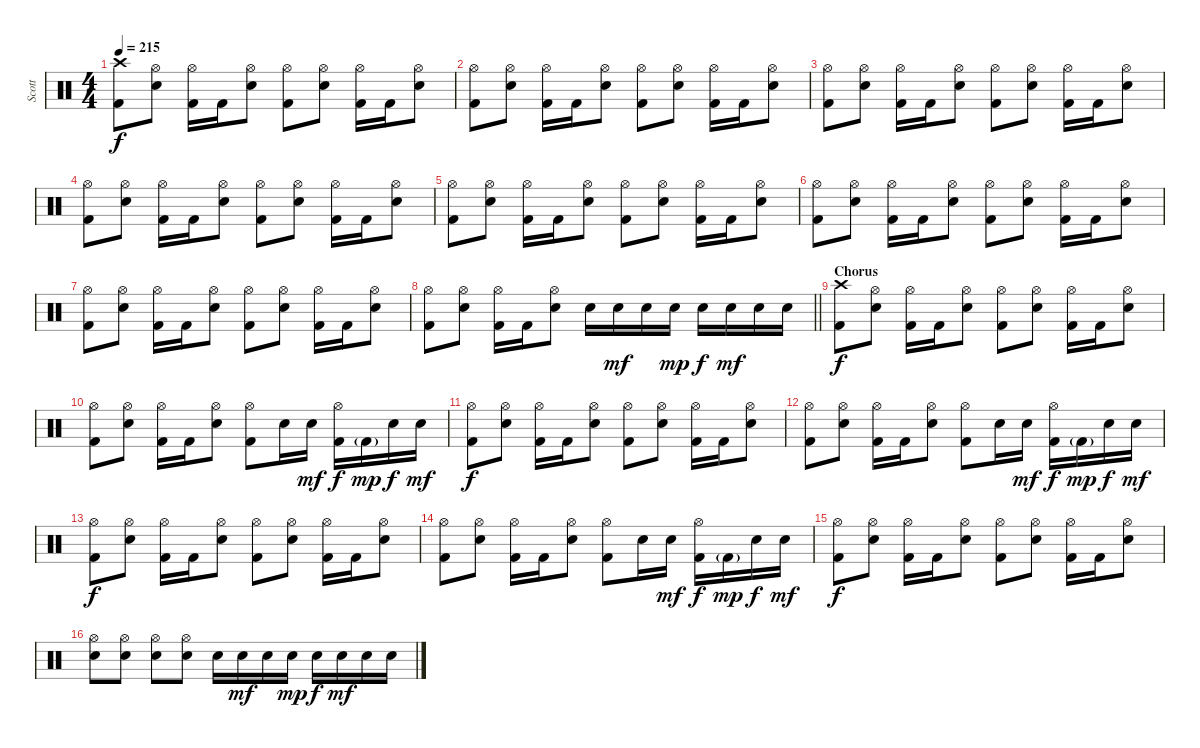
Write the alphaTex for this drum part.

\track ("Scott" "Scott") {instrument percussion}
\staff {score}
\articulation defaults
\ts (4 4)
\tempo 215
\clef neutral
\ks c
("Crash high (hit)" "Kick (hit) 2").8{dy f} ("Hi-Hat (open)" "Electric Snare (hit)").8 ("Hi-Hat (open)" "Kick (hit) 2").16 "Kick (hit) 2".16 ("Hi-Hat (open)" "Electric Snare (hit)").8 ("Hi-Hat (open)" "Kick (hit) 2").8 ("Hi-Hat (open)" "Electric Snare (hit)").8 ("Hi-Hat (open)" "Kick (hit) 2").16 "Kick (hit) 2".16 ("Hi-Hat (open)" "Electric Snare (hit)").8 |
("Hi-Hat (open)" "Kick (hit) 2").8 ("Hi-Hat (open)" "Electric Snare (hit)").8 ("Hi-Hat (open)" "Kick (hit) 2").16 "Kick (hit) 2".16 ("Hi-Hat (open)" "Electric Snare (hit)").8 ("Hi-Hat (open)" "Kick (hit) 2").8 ("Hi-Hat (open)" "Electric Snare (hit)").8 ("Hi-Hat (open)" "Kick (hit) 2").16 "Kick (hit) 2".16 ("Hi-Hat (open)" "Electric Snare (hit)").8 |
("Hi-Hat (open)" "Kick (hit) 2").8 ("Hi-Hat (open)" "Electric Snare (hit)").8 ("Hi-Hat (open)" "Kick (hit) 2").16 "Kick (hit) 2".16 ("Hi-Hat (open)" "Electric Snare (hit)").8 ("Hi-Hat (open)" "Kick (hit) 2").8 ("Hi-Hat (open)" "Electric Snare (hit)").8 ("Hi-Hat (open)" "Kick (hit) 2").16 "Kick (hit) 2".16 ("Hi-Hat (open)" "Electric Snare (hit)").8 |
("Hi-Hat (open)" "Kick (hit) 2").8 ("Hi-Hat (open)" "Electric Snare (hit)").8 ("Hi-Hat (open)" "Kick (hit) 2").16 "Kick (hit) 2".16 ("Hi-Hat (open)" "Electric Snare (hit)").8 ("Hi-Hat (open)" "Kick (hit) 2").8 ("Hi-Hat (open)" "Electric Snare (hit)").8 ("Hi-Hat (open)" "Kick (hit) 2").16 "Kick (hit) 2".16 ("Hi-Hat (open)" "Electric Snare (hit)").8 |
("Hi-Hat (open)" "Kick (hit) 2").8 ("Hi-Hat (open)" "Electric Snare (hit)").8 ("Hi-Hat (open)" "Kick (hit) 2").16 "Kick (hit) 2".16 ("Hi-Hat (open)" "Electric Snare (hit)").8 ("Hi-Hat (open)" "Kick (hit) 2").8 ("Hi-Hat (open)" "Electric Snare (hit)").8 ("Hi-Hat (open)" "Kick (hit) 2").16 "Kick (hit) 2".16 ("Hi-Hat (open)" "Electric Snare (hit)").8 |
("Hi-Hat (open)" "Kick (hit) 2").8 ("Hi-Hat (open)" "Electric Snare (hit)").8 ("Hi-Hat (open)" "Kick (hit) 2").16 "Kick (hit) 2".16 ("Hi-Hat (open)" "Electric Snare (hit)").8 ("Hi-Hat (open)" "Kick (hit) 2").8 ("Hi-Hat (open)" "Electric Snare (hit)").8 ("Hi-Hat (open)" "Kick (hit) 2").16 "Kick (hit) 2".16 ("Hi-Hat (open)" "Electric Snare (hit)").8 |
("Hi-Hat (open)" "Kick (hit) 2").8 ("Hi-Hat (open)" "Electric Snare (hit)").8 ("Hi-Hat (open)" "Kick (hit) 2").16 "Kick (hit) 2".16 ("Hi-Hat (open)" "Electric Snare (hit)").8 ("Hi-Hat (open)" "Kick (hit) 2").8 ("Hi-Hat (open)" "Electric Snare (hit)").8 ("Hi-Hat (open)" "Kick (hit) 2").16 "Kick (hit) 2".16 ("Hi-Hat (open)" "Electric Snare (hit)").8 |
\barLineRight lightlight
("Hi-Hat (open)" "Kick (hit) 2").8 ("Hi-Hat (open)" "Electric Snare (hit)").8 ("Hi-Hat (open)" "Kick (hit) 2").16 "Kick (hit) 2".16 ("Hi-Hat (open)" "Electric Snare (hit)").8 "Electric Snare (hit)".16 "Electric Snare (hit)".16{dy mf} "Electric Snare (hit)".16 "Electric Snare (hit)".16{dy mp} "Electric Snare (hit)".16{dy f} "Electric Snare (hit)".16{dy mf} "Electric Snare (hit)".16 "Electric Snare (hit)".16 |
\section ("" "Chorus")
("Crash high (hit)" "Kick (hit) 2").8{dy f} ("Hi-Hat (open)" "Electric Snare (hit)").8 ("Hi-Hat (open)" "Kick (hit) 2").16 "Kick (hit) 2".16 ("Hi-Hat (open)" "Electric Snare (hit)").8 ("Hi-Hat (open)" "Kick (hit) 2").8 ("Hi-Hat (open)" "Electric Snare (hit)").8 ("Hi-Hat (open)" "Kick (hit) 2").16 "Kick (hit) 2".16 ("Hi-Hat (open)" "Electric Snare (hit)").8 |
("Hi-Hat (open)" "Kick (hit) 2").8 ("Hi-Hat (open)" "Electric Snare (hit)").8 ("Hi-Hat (open)" "Kick (hit) 2").16 "Kick (hit) 2".16 ("Hi-Hat (open)" "Electric Snare (hit)").8 ("Hi-Hat (open)" "Kick (hit) 2").8 "Electric Snare (hit)".16 "Electric Snare (hit)".16{dy mf} ("Hi-Hat (open)" "Kick (hit) 2").16{dy f} "Kick (hit) 2"{g}.16{dy mp} "Electric Snare (hit)".16{dy f} "Electric Snare (hit)".16{dy mf} |
("Hi-Hat (open)" "Kick (hit) 2").8{dy f} ("Hi-Hat (open)" "Electric Snare (hit)").8 ("Hi-Hat (open)" "Kick (hit) 2").16 "Kick (hit) 2".16 ("Hi-Hat (open)" "Electric Snare (hit)").8 ("Hi-Hat (open)" "Kick (hit) 2").8 ("Hi-Hat (open)" "Electric Snare (hit)").8 ("Hi-Hat (open)" "Kick (hit) 2").16 "Kick (hit) 2".16 ("Hi-Hat (open)" "Electric Snare (hit)").8 |
("Hi-Hat (open)" "Kick (hit) 2").8 ("Hi-Hat (open)" "Electric Snare (hit)").8 ("Hi-Hat (open)" "Kick (hit) 2").16 "Kick (hit) 2".16 ("Hi-Hat (open)" "Electric Snare (hit)").8 ("Hi-Hat (open)" "Kick (hit) 2").8 "Electric Snare (hit)".16 "Electric Snare (hit)".16{dy mf} ("Hi-Hat (open)" "Kick (hit) 2").16{dy f} "Kick (hit) 2"{g}.16{dy mp} "Electric Snare (hit)".16{dy f} "Electric Snare (hit)".16{dy mf} |
("Hi-Hat (open)" "Kick (hit) 2").8{dy f} ("Hi-Hat (open)" "Electric Snare (hit)").8 ("Hi-Hat (open)" "Kick (hit) 2").16 "Kick (hit) 2".16 ("Hi-Hat (open)" "Electric Snare (hit)").8 ("Hi-Hat (open)" "Kick (hit) 2").8 ("Hi-Hat (open)" "Electric Snare (hit)").8 ("Hi-Hat (open)" "Kick (hit) 2").16 "Kick (hit) 2".16 ("Hi-Hat (open)" "Electric Snare (hit)").8 |
("Hi-Hat (open)" "Kick (hit) 2").8 ("Hi-Hat (open)" "Electric Snare (hit)").8 ("Hi-Hat (open)" "Kick (hit) 2").16 "Kick (hit) 2".16 ("Hi-Hat (open)" "Electric Snare (hit)").8 ("Hi-Hat (open)" "Kick (hit) 2").8 "Electric Snare (hit)".16 "Electric Snare (hit)".16{dy mf} ("Hi-Hat (open)" "Kick (hit) 2").16{dy f} "Kick (hit) 2"{g}.16{dy mp} "Electric Snare (hit)".16{dy f} "Electric Snare (hit)".16{dy mf} |
("Hi-Hat (open)" "Kick (hit) 2").8{dy f} ("Hi-Hat (open)" "Electric Snare (hit)").8 ("Hi-Hat (open)" "Kick (hit) 2").16 "Kick (hit) 2".16 ("Hi-Hat (open)" "Electric Snare (hit)").8 ("Hi-Hat (open)" "Kick (hit) 2").8 ("Hi-Hat (open)" "Electric Snare (hit)").8 ("Hi-Hat (open)" "Kick (hit) 2").16 "Kick (hit) 2".16 ("Hi-Hat (open)" "Electric Snare (hit)").8 |
("Hi-Hat (open)" "Electric Snare (hit)").8 ("Hi-Hat (open)" "Electric Snare (hit)").8 ("Hi-Hat (open)" "Electric Snare (hit)").8 ("Hi-Hat (open)" "Electric Snare (hit)").8 "Electric Snare (hit)".16 "Electric Snare (hit)".16{dy mf} "Electric Snare (hit)".16 "Electric Snare (hit)".16{dy mp} "Electric Snare (hit)".16{dy f} "Electric Snare (hit)".16{dy mf} "Electric Snare (hit)".16 "Electric Snare (hit)".16
